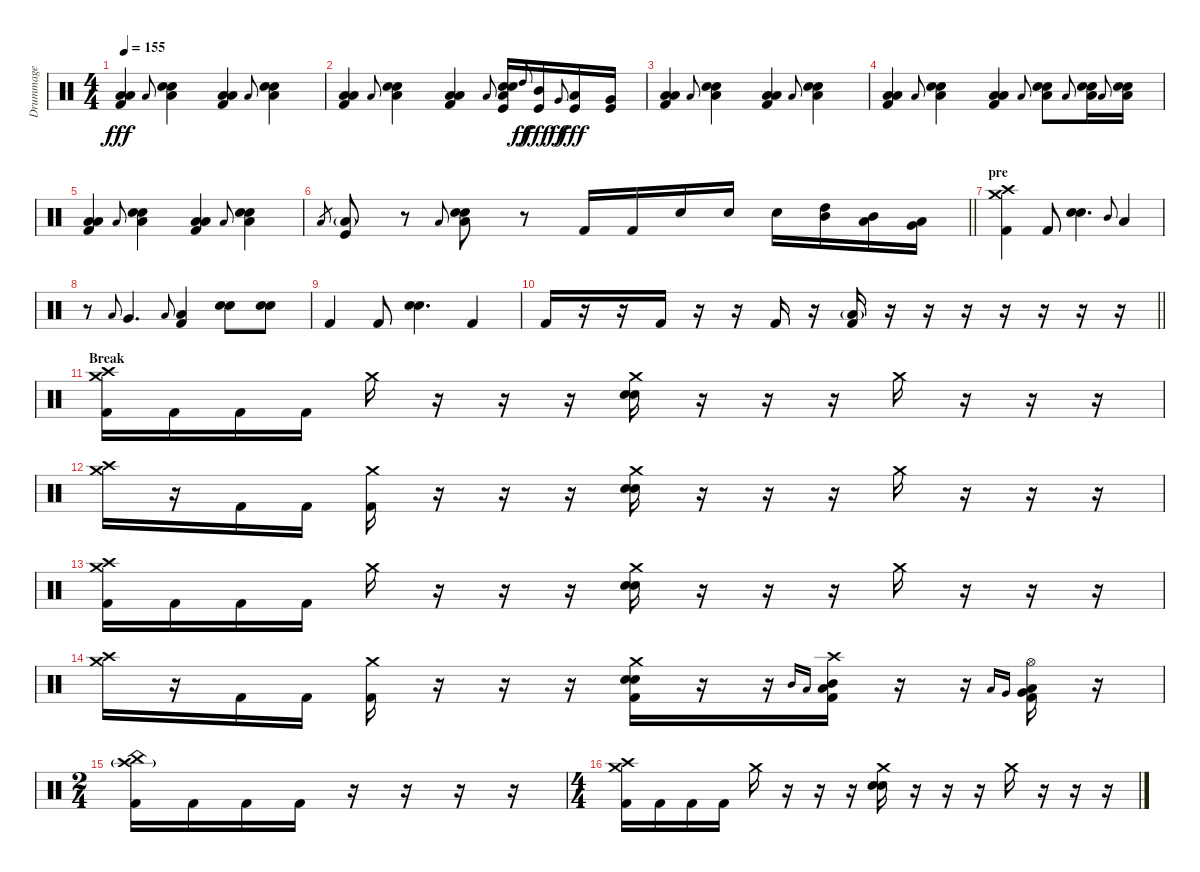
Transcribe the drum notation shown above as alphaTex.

\track ("Drummage" "Drummage") {instrument percussion}
\staff {score}
\articulation defaults
\ts (4 4)
\tempo 155
\clef neutral
\ks c
("Low Tom (hit)" "Low Floor Tom (hit)" "Kick (hit) 2").4{dy fff} "Low Floor Tom (hit)".8{gr onbeat} ("Snare (hit) 2" "Electric Snare (hit)" "Low Tom (hit)").4 ("Low Tom (hit)" "Low Floor Tom (hit)" "Kick (hit) 2").4 "Low Floor Tom (hit)".8{gr onbeat} ("Snare (hit) 2" "Electric Snare (hit)" "Low Tom (hit)").4 |
("Low Tom (hit)" "Low Floor Tom (hit)" "Kick (hit) 2").4 "Low Floor Tom (hit)".8{gr onbeat} ("Snare (hit) 2" "Electric Snare (hit)" "Low Tom (hit)").4 ("Low Tom (hit)" "Low Floor Tom (hit)" "Kick (hit) 2").4 "Low Floor Tom (hit)".8{gr onbeat} ("Snare (hit) 2" "Electric Snare (hit)" "Low Tom (hit)" "Kick (hit)").16 "High Tom (hit)".8{gr onbeat dy ff} ("Mid Tom (hit)" "Kick (hit)").16{dy fff} "Very Low Tom (hit)".8{gr onbeat dy ff} ("Low Tom (hit)" "Kick (hit)").16{dy fff} ("Very Low Tom (hit)" "Kick (hit)").16 |
("Low Tom (hit)" "Low Floor Tom (hit)" "Kick (hit) 2").4 "Low Floor Tom (hit)".8{gr onbeat} ("Snare (hit) 2" "Electric Snare (hit)" "Low Tom (hit)").4 ("Low Tom (hit)" "Low Floor Tom (hit)" "Kick (hit) 2").4 "Low Floor Tom (hit)".8{gr onbeat} ("Snare (hit) 2" "Electric Snare (hit)" "Low Tom (hit)").4 |
("Low Tom (hit)" "Low Floor Tom (hit)" "Kick (hit) 2").4 "Low Floor Tom (hit)".8{gr onbeat} ("Snare (hit) 2" "Electric Snare (hit)" "Low Tom (hit)").4 ("Low Tom (hit)" "Low Floor Tom (hit)" "Kick (hit) 2").4 "Low Floor Tom (hit)".8{gr onbeat} ("Snare (hit) 2" "Electric Snare (hit)" "Low Tom (hit)").8 "Low Floor Tom (hit)".8{gr onbeat} ("Snare (hit) 2" "Electric Snare (hit)" "Low Tom (hit)").16 "Low Floor Tom (hit)".8{gr onbeat} ("Snare (hit) 2" "Electric Snare (hit)" "Low Tom (hit)").16 |
("Low Tom (hit)" "Low Floor Tom (hit)" "Kick (hit) 2").4 "Low Floor Tom (hit)".8{gr onbeat} ("Snare (hit) 2" "Electric Snare (hit)" "Low Tom (hit)").4 ("Low Tom (hit)" "Low Floor Tom (hit)" "Kick (hit) 2").4 "Low Floor Tom (hit)".8{gr onbeat} ("Snare (hit) 2" "Electric Snare (hit)" "Low Tom (hit)").4 |
\barLineRight lightlight "Low Tom (hit)".8{gr}
("Kick (hit)" "Low Tom (hit)"{g}).8 r.8 "Low Floor Tom (hit)".8{gr onbeat} ("Snare (hit) 2" "Electric Snare (hit)" "Low Tom (hit)").8 r.8 "Kick (hit) 2".16 "Kick (hit) 2".16 "Electric Snare (hit)".16 "Electric Snare (hit)".16 "Electric Snare (hit)".16 ("High Tom (hit)" "Mid Tom (hit)").16 ("Mid Tom (hit)" "Low Tom (hit)").16 ("Low Tom (hit)" "Very Low Tom (hit)").16 |
\section ("" "pre")
("Crash high (hit)" "Crash medium (hit)" "Kick (hit) 2").4 "Kick (hit) 2".8 ("Electric Snare (hit)" "Snare (hit) 2").4{d} "Mid Tom (hit)".8{gr onbeat} "Low Tom (hit)".4 |
r.8 "Low Floor Tom (hit)".8{gr onbeat} "Very Low Tom (hit)".4{d} "Low Tom (hit)".8{gr onbeat} ("Low Floor Tom (hit)" "Kick (hit) 2").4 ("Electric Snare (hit)" "Snare (hit) 2").8 ("Electric Snare (hit)" "Snare (hit) 2").8 |
"Kick (hit) 2".4 "Kick (hit) 2".8 ("Electric Snare (hit)" "Snare (hit) 2").4{d} "Kick (hit) 2".4 |
\barLineRight lightlight "Kick (hit) 2".16
r.16 r.16 "Kick (hit) 2".16 r.16 r.16 "Kick (hit) 2".16 r.16 ("Low Floor Tom (hit)"{g} "Kick (hit) 2").16 r.16 r.16 r.16 r.16 r.16 r.16 r.16 |
\section ("" "Break")
("Crash high (hit)" "Crash medium (hit)" "Kick (hit) 2").16 "Kick (hit) 2".16 "Kick (hit) 2".16 "Kick (hit) 2".16 "Crash medium (hit)".16 r.16 r.16 r.16 ("Crash medium (hit)" "Snare (hit) 2" "Electric Snare (hit)").16 r.16 r.16 r.16 "Crash medium (hit)".16 r.16 r.16 r.16 |
("Crash high (hit)" "Crash medium (hit)").16 r.16 "Kick (hit) 2".16 "Kick (hit) 2".16 ("Crash medium (hit)" "Kick (hit) 2").16 r.16 r.16 r.16 ("Crash medium (hit)" "Snare (hit) 2" "Electric Snare (hit)").16 r.16 r.16 r.16 "Crash medium (hit)".16 r.16 r.16 r.16 |
("Crash high (hit)" "Crash medium (hit)" "Kick (hit) 2").16 "Kick (hit) 2".16 "Kick (hit) 2".16 "Kick (hit) 2".16 "Crash medium (hit)".16 r.16 r.16 r.16 ("Crash medium (hit)" "Snare (hit) 2" "Electric Snare (hit)").16 r.16 r.16 r.16 "Crash medium (hit)".16 r.16 r.16 r.16 |
("Crash high (hit)" "Crash medium (hit)").16 r.16 "Kick (hit) 2".16 "Kick (hit) 2".16 ("Crash medium (hit)" "Kick (hit) 2").16 r.16 r.16 r.16 ("Crash medium (hit)" "Snare (hit) 2" "Electric Snare (hit)" "Kick (hit) 2").16 r.16 r.16 "Mid Tom (hit)".16{gr onbeat} "Low Tom (hit)".16{gr onbeat} ("Crash high (hit)" "Mid Tom (hit)" "Low Tom (hit)" "Kick (hit) 2").16 r.16 r.16 "Low Tom (hit)".16{gr onbeat} "Very Low Tom (hit)".16{gr onbeat} ("Hi-Hat (open)" "Low Tom (hit)" "Very Low Tom (hit)" "Kick (hit) 2").16 r.16 |
\ts (2 4)
("Crash high (hit)"{g} "China (hit)" "Kick (hit) 2").16 "Kick (hit) 2".16 "Kick (hit) 2".16 "Kick (hit) 2".16 r.16 r.16 r.16 r.16 |
\ts (4 4)
("Crash high (hit)" "Crash medium (hit)" "Kick (hit) 2").16 "Kick (hit) 2".16 "Kick (hit) 2".16 "Kick (hit) 2".16 "Crash medium (hit)".16 r.16 r.16 r.16 ("Crash medium (hit)" "Snare (hit) 2" "Electric Snare (hit)").16 r.16 r.16 r.16 "Crash medium (hit)".16 r.16 r.16 r.16
